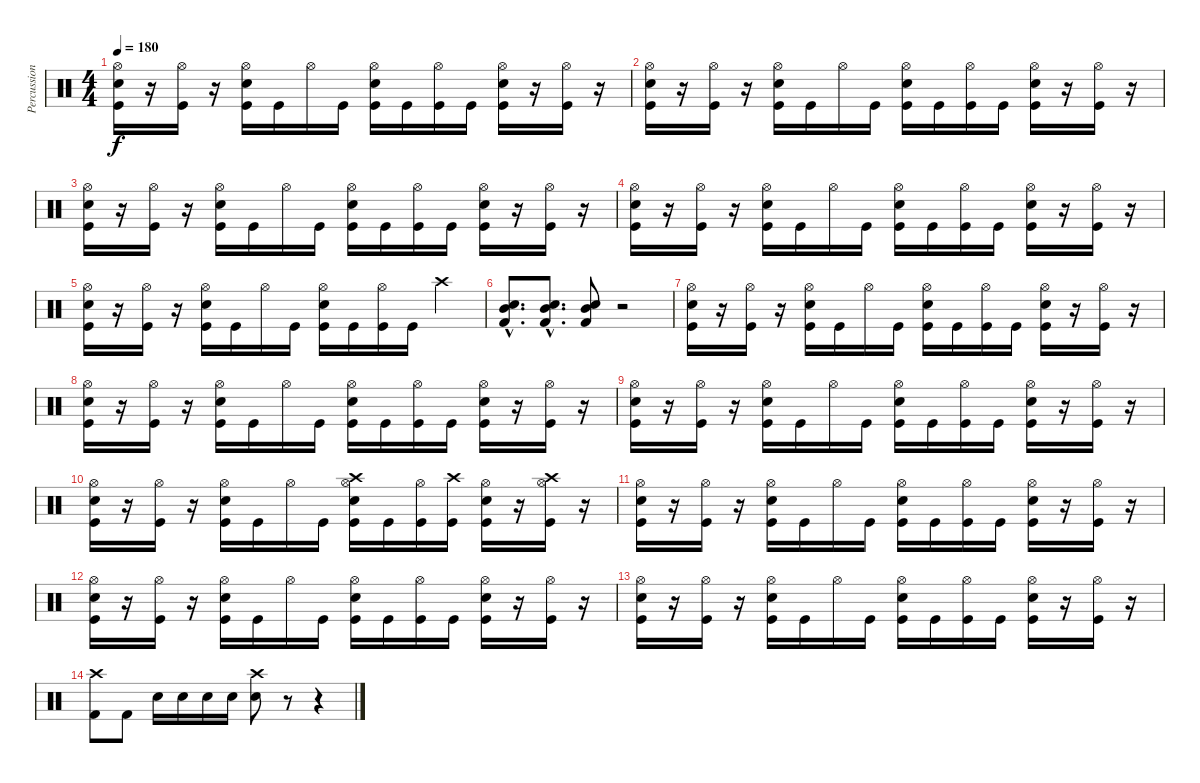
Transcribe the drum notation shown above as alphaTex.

\track ("Percussion" "Percussion") {instrument percussion}
\staff {score}
\articulation defaults
\ts (4 4)
\tempo 180
\clef neutral
\ks c
("Hi-Hat (open)" "Snare (hit) 2" "Kick (hit)").16{dy f} r.16 ("Hi-Hat (open)" "Kick (hit)").16 r.16 ("Hi-Hat (open)" "Snare (hit) 2" "Kick (hit)").16 "Kick (hit)".16 "Hi-Hat (open)".16 "Kick (hit)".16 ("Hi-Hat (open)" "Snare (hit) 2" "Kick (hit)").16 "Kick (hit)".16 ("Hi-Hat (open)" "Kick (hit)").16 "Kick (hit)".16 ("Hi-Hat (open)" "Snare (hit) 2" "Kick (hit)").16 r.16 ("Hi-Hat (open)" "Kick (hit)").16 r.16 |
("Hi-Hat (open)" "Snare (hit) 2" "Kick (hit)").16 r.16 ("Hi-Hat (open)" "Kick (hit)").16 r.16 ("Hi-Hat (open)" "Snare (hit) 2" "Kick (hit)").16 "Kick (hit)".16 "Hi-Hat (open)".16 "Kick (hit)".16 ("Hi-Hat (open)" "Snare (hit) 2" "Kick (hit)").16 "Kick (hit)".16 ("Hi-Hat (open)" "Kick (hit)").16 "Kick (hit)".16 ("Hi-Hat (open)" "Snare (hit) 2" "Kick (hit)").16 r.16 ("Hi-Hat (open)" "Kick (hit)").16 r.16 |
("Hi-Hat (open)" "Snare (hit) 2" "Kick (hit)").16 r.16 ("Hi-Hat (open)" "Kick (hit)").16 r.16 ("Hi-Hat (open)" "Snare (hit) 2" "Kick (hit)").16 "Kick (hit)".16 "Hi-Hat (open)".16 "Kick (hit)".16 ("Hi-Hat (open)" "Snare (hit) 2" "Kick (hit)").16 "Kick (hit)".16 ("Hi-Hat (open)" "Kick (hit)").16 "Kick (hit)".16 ("Hi-Hat (open)" "Snare (hit) 2" "Kick (hit)").16 r.16 ("Hi-Hat (open)" "Kick (hit)").16 r.16 |
("Hi-Hat (open)" "Snare (hit) 2" "Kick (hit)").16 r.16 ("Hi-Hat (open)" "Kick (hit)").16 r.16 ("Hi-Hat (open)" "Snare (hit) 2" "Kick (hit)").16 "Kick (hit)".16 "Hi-Hat (open)".16 "Kick (hit)".16 ("Hi-Hat (open)" "Snare (hit) 2" "Kick (hit)").16 "Kick (hit)".16 ("Hi-Hat (open)" "Kick (hit)").16 "Kick (hit)".16 ("Hi-Hat (open)" "Snare (hit) 2" "Kick (hit)").16 r.16 ("Hi-Hat (open)" "Kick (hit)").16 r.16 |
("Hi-Hat (open)" "Snare (hit) 2" "Kick (hit)").16 r.16 ("Hi-Hat (open)" "Kick (hit)").16 r.16 ("Hi-Hat (open)" "Snare (hit) 2" "Kick (hit)").16 "Kick (hit)".16 "Hi-Hat (open)".16 "Kick (hit)".16 ("Hi-Hat (open)" "Snare (hit) 2" "Kick (hit)").16 "Kick (hit)".16 ("Hi-Hat (open)" "Kick (hit)").16 "Kick (hit)".16 "Crash high (hit)".4 |
("Mid Tom (hit)"{hac} "Snare (hit) 2"{hac} "Kick (hit) 2"{hac}).8{d} ("Mid Tom (hit)"{hac} "Snare (hit) 2"{hac} "Kick (hit) 2"{hac}).8{d} ("Mid Tom (hit)" "Snare (hit) 2" "Kick (hit) 2").8 r.2 |
("Hi-Hat (open)" "Snare (hit) 2" "Kick (hit)").16 r.16 ("Hi-Hat (open)" "Kick (hit)").16 r.16 ("Hi-Hat (open)" "Snare (hit) 2" "Kick (hit)").16 "Kick (hit)".16 "Hi-Hat (open)".16 "Kick (hit)".16 ("Hi-Hat (open)" "Snare (hit) 2" "Kick (hit)").16 "Kick (hit)".16 ("Hi-Hat (open)" "Kick (hit)").16 "Kick (hit)".16 ("Hi-Hat (open)" "Snare (hit) 2" "Kick (hit)").16 r.16 ("Hi-Hat (open)" "Kick (hit)").16 r.16 |
("Hi-Hat (open)" "Snare (hit) 2" "Kick (hit)").16 r.16 ("Hi-Hat (open)" "Kick (hit)").16 r.16 ("Hi-Hat (open)" "Snare (hit) 2" "Kick (hit)").16 "Kick (hit)".16 "Hi-Hat (open)".16 "Kick (hit)".16 ("Hi-Hat (open)" "Snare (hit) 2" "Kick (hit)").16 "Kick (hit)".16 ("Hi-Hat (open)" "Kick (hit)").16 "Kick (hit)".16 ("Hi-Hat (open)" "Snare (hit) 2" "Kick (hit)").16 r.16 ("Hi-Hat (open)" "Kick (hit)").16 r.16 |
("Hi-Hat (open)" "Snare (hit) 2" "Kick (hit)").16 r.16 ("Hi-Hat (open)" "Kick (hit)").16 r.16 ("Hi-Hat (open)" "Snare (hit) 2" "Kick (hit)").16 "Kick (hit)".16 "Hi-Hat (open)".16 "Kick (hit)".16 ("Hi-Hat (open)" "Snare (hit) 2" "Kick (hit)").16 "Kick (hit)".16 ("Hi-Hat (open)" "Kick (hit)").16 "Kick (hit)".16 ("Hi-Hat (open)" "Snare (hit) 2" "Kick (hit)").16 r.16 ("Hi-Hat (open)" "Kick (hit)").16 r.16 |
("Hi-Hat (open)" "Snare (hit) 2" "Kick (hit)").16 r.16 ("Hi-Hat (open)" "Kick (hit)").16 r.16 ("Hi-Hat (open)" "Snare (hit) 2" "Kick (hit)").16 "Kick (hit)".16 "Hi-Hat (open)".16 "Kick (hit)".16 ("Crash high (hit)" "Hi-Hat (open)" "Snare (hit) 2" "Kick (hit)").16 "Kick (hit)".16 ("Hi-Hat (open)" "Kick (hit)").16 ("Crash high (hit)" "Kick (hit)").16 ("Hi-Hat (open)" "Snare (hit) 2" "Kick (hit)").16 r.16 ("Crash high (hit)" "Hi-Hat (open)" "Kick (hit)").16 r.16 |
("Hi-Hat (open)" "Snare (hit) 2" "Kick (hit)").16 r.16 ("Hi-Hat (open)" "Kick (hit)").16 r.16 ("Hi-Hat (open)" "Snare (hit) 2" "Kick (hit)").16 "Kick (hit)".16 "Hi-Hat (open)".16 "Kick (hit)".16 ("Hi-Hat (open)" "Snare (hit) 2" "Kick (hit)").16 "Kick (hit)".16 ("Hi-Hat (open)" "Kick (hit)").16 "Kick (hit)".16 ("Hi-Hat (open)" "Snare (hit) 2" "Kick (hit)").16 r.16 ("Hi-Hat (open)" "Kick (hit)").16 r.16 |
("Hi-Hat (open)" "Snare (hit) 2" "Kick (hit)").16 r.16 ("Hi-Hat (open)" "Kick (hit)").16 r.16 ("Hi-Hat (open)" "Snare (hit) 2" "Kick (hit)").16 "Kick (hit)".16 "Hi-Hat (open)".16 "Kick (hit)".16 ("Hi-Hat (open)" "Snare (hit) 2" "Kick (hit)").16 "Kick (hit)".16 ("Hi-Hat (open)" "Kick (hit)").16 "Kick (hit)".16 ("Hi-Hat (open)" "Snare (hit) 2" "Kick (hit)").16 r.16 ("Hi-Hat (open)" "Kick (hit)").16 r.16 |
("Hi-Hat (open)" "Snare (hit) 2" "Kick (hit)").16 r.16 ("Hi-Hat (open)" "Kick (hit)").16 r.16 ("Hi-Hat (open)" "Snare (hit) 2" "Kick (hit)").16 "Kick (hit)".16 "Hi-Hat (open)".16 "Kick (hit)".16 ("Hi-Hat (open)" "Snare (hit) 2" "Kick (hit)").16 "Kick (hit)".16 ("Hi-Hat (open)" "Kick (hit)").16 "Kick (hit)".16 ("Hi-Hat (open)" "Snare (hit) 2" "Kick (hit)").16 r.16 ("Hi-Hat (open)" "Kick (hit)").16 r.16 |
("Crash high (hit)" "Kick (hit) 2").8 "Kick (hit) 2".8 "Snare (hit) 2".16 "Snare (hit) 2".16 "Snare (hit) 2".16 "Snare (hit) 2".16 ("Crash high (hit)" "Snare (hit) 2").8 r.8 r.4
